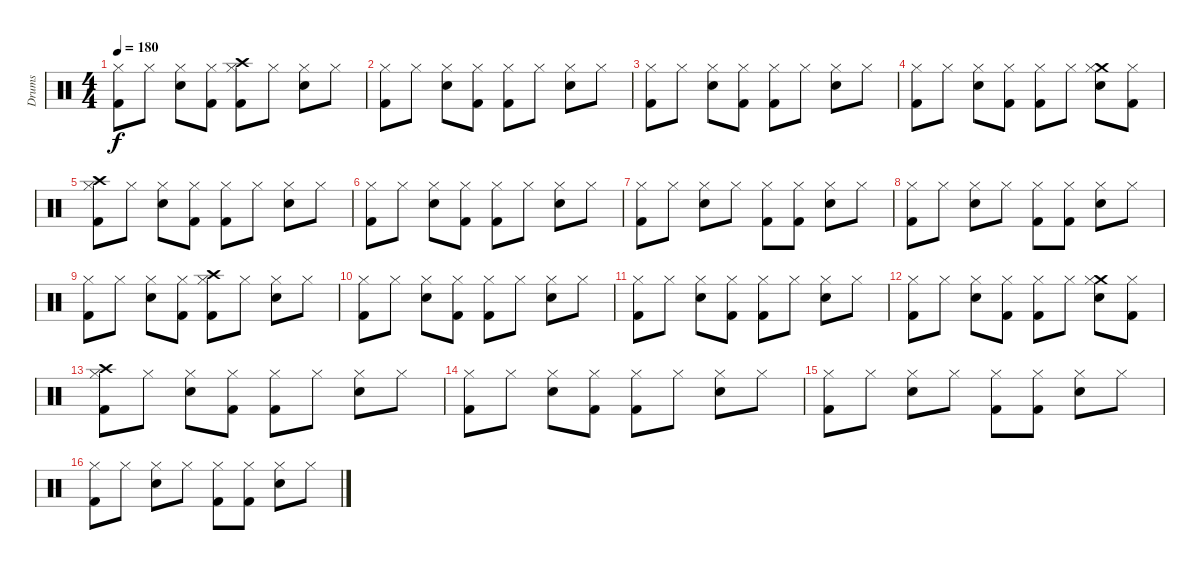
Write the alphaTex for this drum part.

\track ("Drums" "Drums") {instrument percussion}
\staff {score}
\articulation defaults
\ts (4 4)
\tempo 180
\clef neutral
\ks c
("Hi-Hat (closed)" "Kick (hit) 2").8{dy f} "Hi-Hat (closed)".8 ("Hi-Hat (closed)" "Snare (hit) 2").8 ("Hi-Hat (closed)" "Kick (hit) 2").8 ("Crash high (hit)" "Hi-Hat (closed)" "Kick (hit) 2").8 "Hi-Hat (closed)".8 ("Hi-Hat (closed)" "Snare (hit) 2").8 "Hi-Hat (closed)".8 |
("Hi-Hat (closed)" "Kick (hit) 2").8 "Hi-Hat (closed)".8 ("Hi-Hat (closed)" "Snare (hit) 2").8 ("Hi-Hat (closed)" "Kick (hit) 2").8 ("Hi-Hat (closed)" "Kick (hit) 2").8 "Hi-Hat (closed)".8 ("Hi-Hat (closed)" "Snare (hit) 2").8 "Hi-Hat (closed)".8 |
("Hi-Hat (closed)" "Kick (hit) 2").8 "Hi-Hat (closed)".8 ("Hi-Hat (closed)" "Snare (hit) 2").8 ("Hi-Hat (closed)" "Kick (hit) 2").8 ("Hi-Hat (closed)" "Kick (hit) 2").8 "Hi-Hat (closed)".8 ("Hi-Hat (closed)" "Snare (hit) 2").8 "Hi-Hat (closed)".8 |
("Hi-Hat (closed)" "Kick (hit) 2").8 "Hi-Hat (closed)".8 ("Hi-Hat (closed)" "Snare (hit) 2").8 ("Hi-Hat (closed)" "Kick (hit) 2").8 ("Hi-Hat (closed)" "Kick (hit) 2").8 "Hi-Hat (closed)".8 ("Crash medium (hit)" "Hi-Hat (closed)" "Snare (hit) 2").8 ("Hi-Hat (closed)" "Kick (hit) 2").8 |
("Crash high (hit)" "Hi-Hat (closed)" "Kick (hit) 2").8 "Hi-Hat (closed)".8 ("Hi-Hat (closed)" "Snare (hit) 2").8 ("Hi-Hat (closed)" "Kick (hit) 2").8 ("Hi-Hat (closed)" "Kick (hit) 2").8 "Hi-Hat (closed)".8 ("Hi-Hat (closed)" "Snare (hit) 2").8 "Hi-Hat (closed)".8 |
("Hi-Hat (closed)" "Kick (hit) 2").8 "Hi-Hat (closed)".8 ("Hi-Hat (closed)" "Snare (hit) 2").8 ("Hi-Hat (closed)" "Kick (hit) 2").8 ("Hi-Hat (closed)" "Kick (hit) 2").8 "Hi-Hat (closed)".8 ("Hi-Hat (closed)" "Snare (hit) 2").8 "Hi-Hat (closed)".8 |
("Hi-Hat (closed)" "Kick (hit) 2").8 "Hi-Hat (closed)".8 ("Hi-Hat (closed)" "Snare (hit) 2").8 "Hi-Hat (closed)".8 ("Hi-Hat (closed)" "Kick (hit) 2").8 ("Hi-Hat (closed)" "Kick (hit) 2").8 ("Hi-Hat (closed)" "Snare (hit) 2").8 "Hi-Hat (closed)".8 |
("Hi-Hat (closed)" "Kick (hit) 2").8 "Hi-Hat (closed)".8 ("Hi-Hat (closed)" "Snare (hit) 2").8 "Hi-Hat (closed)".8 ("Hi-Hat (closed)" "Kick (hit) 2").8 ("Hi-Hat (closed)" "Kick (hit) 2").8 ("Hi-Hat (closed)" "Snare (hit) 2").8 "Hi-Hat (closed)".8 |
("Hi-Hat (closed)" "Kick (hit) 2").8 "Hi-Hat (closed)".8 ("Hi-Hat (closed)" "Snare (hit) 2").8 ("Hi-Hat (closed)" "Kick (hit) 2").8 ("Crash high (hit)" "Hi-Hat (closed)" "Kick (hit) 2").8 "Hi-Hat (closed)".8 ("Hi-Hat (closed)" "Snare (hit) 2").8 "Hi-Hat (closed)".8 |
("Hi-Hat (closed)" "Kick (hit) 2").8 "Hi-Hat (closed)".8 ("Hi-Hat (closed)" "Snare (hit) 2").8 ("Hi-Hat (closed)" "Kick (hit) 2").8 ("Hi-Hat (closed)" "Kick (hit) 2").8 "Hi-Hat (closed)".8 ("Hi-Hat (closed)" "Snare (hit) 2").8 "Hi-Hat (closed)".8 |
("Hi-Hat (closed)" "Kick (hit) 2").8 "Hi-Hat (closed)".8 ("Hi-Hat (closed)" "Snare (hit) 2").8 ("Hi-Hat (closed)" "Kick (hit) 2").8 ("Hi-Hat (closed)" "Kick (hit) 2").8 "Hi-Hat (closed)".8 ("Hi-Hat (closed)" "Snare (hit) 2").8 "Hi-Hat (closed)".8 |
("Hi-Hat (closed)" "Kick (hit) 2").8 "Hi-Hat (closed)".8 ("Hi-Hat (closed)" "Snare (hit) 2").8 ("Hi-Hat (closed)" "Kick (hit) 2").8 ("Hi-Hat (closed)" "Kick (hit) 2").8 "Hi-Hat (closed)".8 ("Crash medium (hit)" "Hi-Hat (closed)" "Snare (hit) 2").8 ("Hi-Hat (closed)" "Kick (hit) 2").8 |
("Crash high (hit)" "Hi-Hat (closed)" "Kick (hit) 2").8 "Hi-Hat (closed)".8 ("Hi-Hat (closed)" "Snare (hit) 2").8 ("Hi-Hat (closed)" "Kick (hit) 2").8 ("Hi-Hat (closed)" "Kick (hit) 2").8 "Hi-Hat (closed)".8 ("Hi-Hat (closed)" "Snare (hit) 2").8 "Hi-Hat (closed)".8 |
("Hi-Hat (closed)" "Kick (hit) 2").8 "Hi-Hat (closed)".8 ("Hi-Hat (closed)" "Snare (hit) 2").8 ("Hi-Hat (closed)" "Kick (hit) 2").8 ("Hi-Hat (closed)" "Kick (hit) 2").8 "Hi-Hat (closed)".8 ("Hi-Hat (closed)" "Snare (hit) 2").8 "Hi-Hat (closed)".8 |
("Hi-Hat (closed)" "Kick (hit) 2").8 "Hi-Hat (closed)".8 ("Hi-Hat (closed)" "Snare (hit) 2").8 "Hi-Hat (closed)".8 ("Hi-Hat (closed)" "Kick (hit) 2").8 ("Hi-Hat (closed)" "Kick (hit) 2").8 ("Hi-Hat (closed)" "Snare (hit) 2").8 "Hi-Hat (closed)".8 |
("Hi-Hat (closed)" "Kick (hit) 2").8 "Hi-Hat (closed)".8 ("Hi-Hat (closed)" "Snare (hit) 2").8 "Hi-Hat (closed)".8 ("Hi-Hat (closed)" "Kick (hit) 2").8 ("Hi-Hat (closed)" "Kick (hit) 2").8 ("Hi-Hat (closed)" "Snare (hit) 2").8 "Hi-Hat (closed)".8
